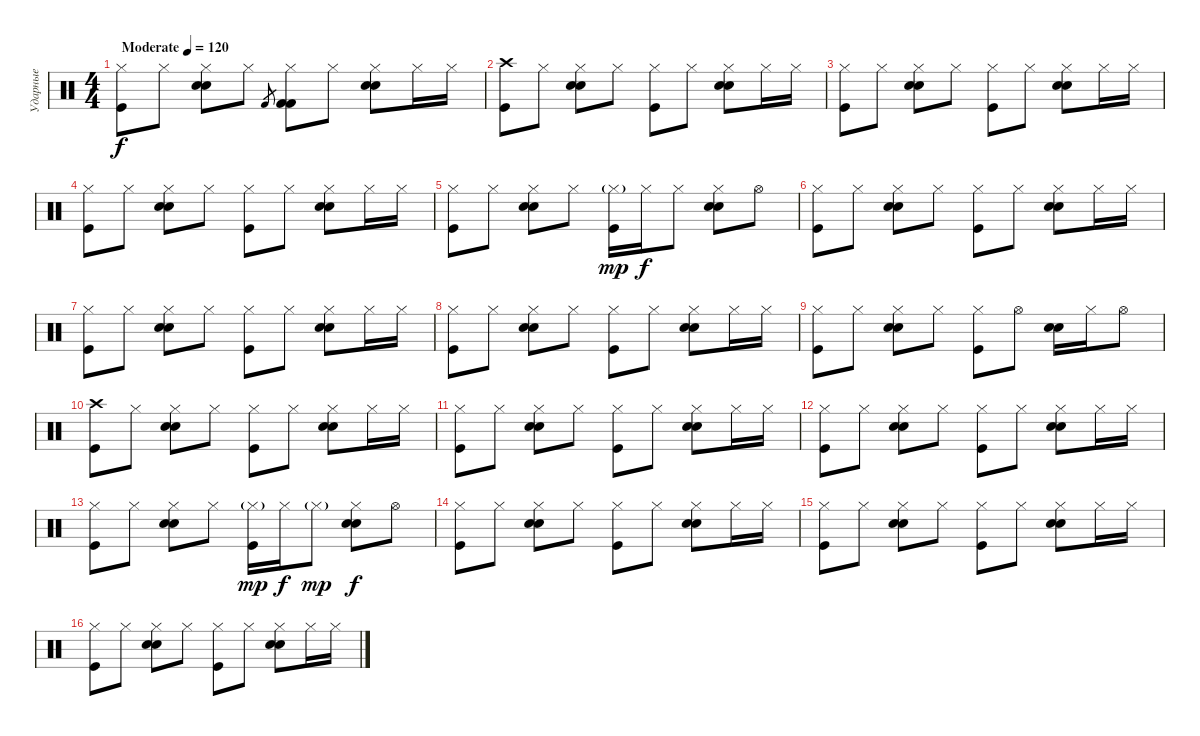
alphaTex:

\track ("Ударные" "Ударные") {instrument percussion}
\staff {score}
\articulation defaults
\ts (4 4)
\tempo (120 "Moderate")
\clef neutral
\ks c
("Hi-Hat (closed)" "Kick (hit)").8{dy f} "Hi-Hat (closed)".8 ("Hi-Hat (closed)" "Hand Clap (hit)" "Electric Snare (hit)").8 "Hi-Hat (closed)".8 "Kick (hit) 2".8{gr} ("Hi-Hat (closed)" "Kick (hit) 2" "Kick (hit) 2").8 "Hi-Hat (closed)".8 ("Hi-Hat (closed)" "Hand Clap (hit)" "Electric Snare (hit)").8 "Hi-Hat (closed)".16 "Hi-Hat (closed)".16 |
("Crash high (hit)" "Kick (hit)").8 "Hi-Hat (closed)".8 ("Hi-Hat (closed)" "Hand Clap (hit)" "Electric Snare (hit)").8 "Hi-Hat (closed)".8 ("Hi-Hat (closed)" "Kick (hit)").8 "Hi-Hat (closed)".8 ("Hi-Hat (closed)" "Hand Clap (hit)" "Electric Snare (hit)").8 "Hi-Hat (closed)".16 "Hi-Hat (closed)".16 |
("Hi-Hat (closed)" "Kick (hit)").8 "Hi-Hat (closed)".8 ("Hi-Hat (closed)" "Hand Clap (hit)" "Electric Snare (hit)").8 "Hi-Hat (closed)".8 ("Hi-Hat (closed)" "Kick (hit)").8 "Hi-Hat (closed)".8 ("Hi-Hat (closed)" "Hand Clap (hit)" "Electric Snare (hit)").8 "Hi-Hat (closed)".16 "Hi-Hat (closed)".16 |
("Hi-Hat (closed)" "Kick (hit)").8 "Hi-Hat (closed)".8 ("Hi-Hat (closed)" "Hand Clap (hit)" "Electric Snare (hit)").8 "Hi-Hat (closed)".8 ("Hi-Hat (closed)" "Kick (hit)").8 "Hi-Hat (closed)".8 ("Hi-Hat (closed)" "Hand Clap (hit)" "Electric Snare (hit)").8 "Hi-Hat (closed)".16 "Hi-Hat (closed)".16 |
("Hi-Hat (closed)" "Kick (hit)").8 "Hi-Hat (closed)".8 ("Hi-Hat (closed)" "Hand Clap (hit)" "Electric Snare (hit)").8 "Hi-Hat (closed)".8 ("Hi-Hat (closed)"{g} "Kick (hit)").16{dy mp} "Hi-Hat (closed)".16{dy f} "Hi-Hat (closed)".8 ("Hi-Hat (closed)" "Hand Clap (hit)" "Electric Snare (hit)").8 "Hi-Hat (open)".8 |
("Hi-Hat (closed)" "Kick (hit)").8 "Hi-Hat (closed)".8 ("Hi-Hat (closed)" "Hand Clap (hit)" "Electric Snare (hit)").8 "Hi-Hat (closed)".8 ("Hi-Hat (closed)" "Kick (hit)").8 "Hi-Hat (closed)".8 ("Hi-Hat (closed)" "Hand Clap (hit)" "Electric Snare (hit)").8 "Hi-Hat (closed)".16 "Hi-Hat (closed)".16 |
("Hi-Hat (closed)" "Kick (hit)").8 "Hi-Hat (closed)".8 ("Hi-Hat (closed)" "Hand Clap (hit)" "Electric Snare (hit)").8 "Hi-Hat (closed)".8 ("Hi-Hat (closed)" "Kick (hit)").8 "Hi-Hat (closed)".8 ("Hi-Hat (closed)" "Hand Clap (hit)" "Electric Snare (hit)").8 "Hi-Hat (closed)".16 "Hi-Hat (closed)".16 |
("Hi-Hat (closed)" "Kick (hit)").8 "Hi-Hat (closed)".8 ("Hi-Hat (closed)" "Hand Clap (hit)" "Electric Snare (hit)").8 "Hi-Hat (closed)".8 ("Hi-Hat (closed)" "Kick (hit)").8 "Hi-Hat (closed)".8 ("Hi-Hat (closed)" "Hand Clap (hit)" "Electric Snare (hit)").8 "Hi-Hat (closed)".16 "Hi-Hat (closed)".16 |
("Hi-Hat (closed)" "Kick (hit)").8 "Hi-Hat (closed)".8 ("Hi-Hat (closed)" "Hand Clap (hit)" "Electric Snare (hit)").8 "Hi-Hat (closed)".8 ("Hi-Hat (closed)" "Kick (hit)").8 "Hi-Hat (open)".8 ("Hand Clap (hit)" "Electric Snare (hit)").16 "Hi-Hat (closed)".16 "Hi-Hat (open)".8 |
("Crash high (hit)" "Kick (hit)").8 "Hi-Hat (closed)".8 ("Hi-Hat (closed)" "Hand Clap (hit)" "Electric Snare (hit)").8 "Hi-Hat (closed)".8 ("Hi-Hat (closed)" "Kick (hit)").8 "Hi-Hat (closed)".8 ("Hi-Hat (closed)" "Hand Clap (hit)" "Electric Snare (hit)").8 "Hi-Hat (closed)".16 "Hi-Hat (closed)".16 |
("Hi-Hat (closed)" "Kick (hit)").8 "Hi-Hat (closed)".8 ("Hi-Hat (closed)" "Hand Clap (hit)" "Electric Snare (hit)").8 "Hi-Hat (closed)".8 ("Hi-Hat (closed)" "Kick (hit)").8 "Hi-Hat (closed)".8 ("Hi-Hat (closed)" "Hand Clap (hit)" "Electric Snare (hit)").8 "Hi-Hat (closed)".16 "Hi-Hat (closed)".16 |
("Hi-Hat (closed)" "Kick (hit)").8 "Hi-Hat (closed)".8 ("Hi-Hat (closed)" "Hand Clap (hit)" "Electric Snare (hit)").8 "Hi-Hat (closed)".8 ("Hi-Hat (closed)" "Kick (hit)").8 "Hi-Hat (closed)".8 ("Hi-Hat (closed)" "Hand Clap (hit)" "Electric Snare (hit)").8 "Hi-Hat (closed)".16 "Hi-Hat (closed)".16 |
("Hi-Hat (closed)" "Kick (hit)").8 "Hi-Hat (closed)".8 ("Hi-Hat (closed)" "Hand Clap (hit)" "Electric Snare (hit)").8 "Hi-Hat (closed)".8 ("Hi-Hat (closed)"{g} "Kick (hit)").16{dy mp} "Hi-Hat (closed)".16{dy f} "Hi-Hat (closed)"{g}.8{dy mp} ("Hi-Hat (closed)" "Hand Clap (hit)" "Electric Snare (hit)").8{dy f} "Hi-Hat (open)".8 |
("Hi-Hat (closed)" "Kick (hit)").8 "Hi-Hat (closed)".8 ("Hi-Hat (closed)" "Hand Clap (hit)" "Electric Snare (hit)").8 "Hi-Hat (closed)".8 ("Hi-Hat (closed)" "Kick (hit)").8 "Hi-Hat (closed)".8 ("Hi-Hat (closed)" "Hand Clap (hit)" "Electric Snare (hit)").8 "Hi-Hat (closed)".16 "Hi-Hat (closed)".16 |
("Hi-Hat (closed)" "Kick (hit)").8 "Hi-Hat (closed)".8 ("Hi-Hat (closed)" "Hand Clap (hit)" "Electric Snare (hit)").8 "Hi-Hat (closed)".8 ("Hi-Hat (closed)" "Kick (hit)").8 "Hi-Hat (closed)".8 ("Hi-Hat (closed)" "Hand Clap (hit)" "Electric Snare (hit)").8 "Hi-Hat (closed)".16 "Hi-Hat (closed)".16 |
("Hi-Hat (closed)" "Kick (hit)").8 "Hi-Hat (closed)".8 ("Hi-Hat (closed)" "Hand Clap (hit)" "Electric Snare (hit)").8 "Hi-Hat (closed)".8 ("Hi-Hat (closed)" "Kick (hit)").8 "Hi-Hat (closed)".8 ("Hi-Hat (closed)" "Hand Clap (hit)" "Electric Snare (hit)").8 "Hi-Hat (closed)".16 "Hi-Hat (closed)".16
